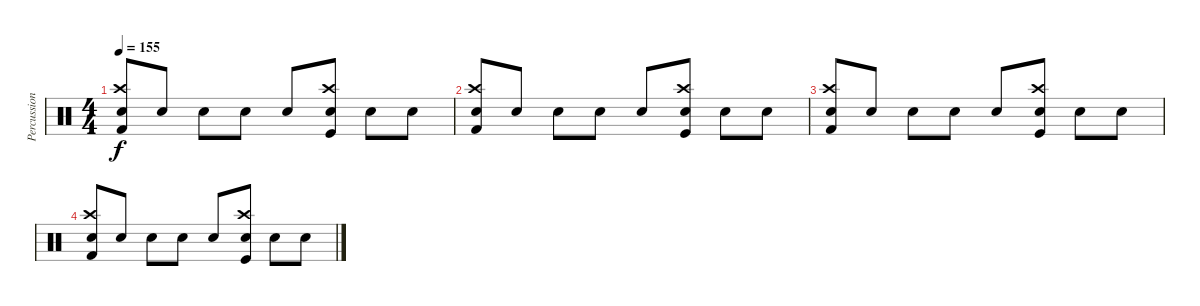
\track ("Percussion" "Percussion") {instrument percussion}
\staff {score}
\articulation defaults
\ts (4 4)
\tempo 155
\clef neutral
\ks c
("Snare (hit) 2" "Crash high (hit)" "Kick (hit) 2").8{dy f} "Snare (hit) 2".8 "Snare (hit) 2".8 "Snare (hit) 2".8 "Snare (hit) 2".8 ("Snare (hit) 2" "Crash high (hit)" "Kick (hit)").8 "Snare (hit) 2".8 "Snare (hit) 2".8 |
("Snare (hit) 2" "Crash high (hit)" "Kick (hit) 2").8{volume 4} "Snare (hit) 2".8 "Snare (hit) 2".8 "Snare (hit) 2".8 "Snare (hit) 2".8 ("Snare (hit) 2" "Crash high (hit)" "Kick (hit)").8 "Snare (hit) 2".8 "Snare (hit) 2".8 |
("Snare (hit) 2" "Crash high (hit)" "Kick (hit) 2").8{volume 2} "Snare (hit) 2".8 "Snare (hit) 2".8 "Snare (hit) 2".8 "Snare (hit) 2".8 ("Snare (hit) 2" "Crash high (hit)" "Kick (hit)").8 "Snare (hit) 2".8 "Snare (hit) 2".8 |
("Snare (hit) 2" "Crash high (hit)" "Kick (hit) 2").8 "Snare (hit) 2".8 "Snare (hit) 2".8 "Snare (hit) 2".8 "Snare (hit) 2".8 ("Snare (hit) 2" "Crash high (hit)" "Kick (hit)").8 "Snare (hit) 2".8 "Snare (hit) 2".8
